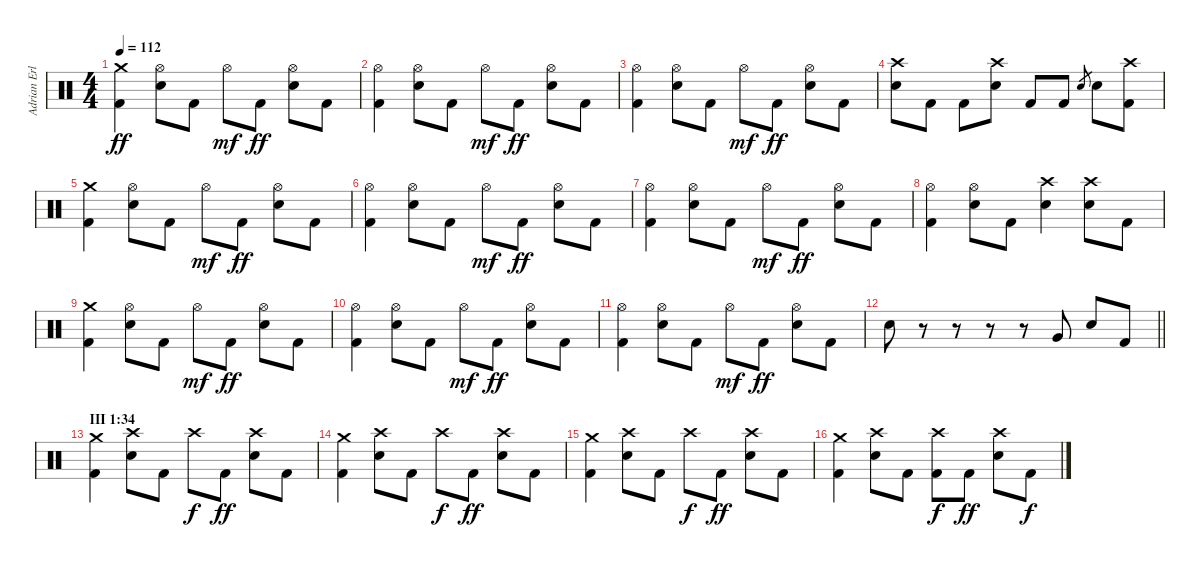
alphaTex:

\track ("Adrian Erlandsson (Drums)" "Adrian Erl") {instrument percussion}
\staff {score}
\articulation defaults
\ts (4 4)
\tempo 112
\clef neutral
\ks c
("Crash medium (hit)" "Kick (hit) 2").4{dy ff} ("Hi-Hat (open)" "Electric Snare (hit)").8 "Kick (hit) 2".8 "Hi-Hat (open)".8{dy mf} "Kick (hit) 2".8{dy ff} ("Hi-Hat (open)" "Electric Snare (hit)").8 "Kick (hit) 2".8 |
("Hi-Hat (open)" "Kick (hit) 2").4 ("Hi-Hat (open)" "Electric Snare (hit)").8 "Kick (hit) 2".8 "Hi-Hat (open)".8{dy mf} "Kick (hit) 2".8{dy ff} ("Hi-Hat (open)" "Electric Snare (hit)").8 "Kick (hit) 2".8 |
("Hi-Hat (open)" "Kick (hit) 2").4 ("Hi-Hat (open)" "Electric Snare (hit)").8 "Kick (hit) 2".8 "Hi-Hat (open)".8{dy mf} "Kick (hit) 2".8{dy ff} ("Hi-Hat (open)" "Electric Snare (hit)").8 "Kick (hit) 2".8 |
("Crash high (hit)" "Electric Snare (hit)").8 "Kick (hit) 2".8 "Kick (hit) 2".8 ("Crash high (hit)" "Electric Snare (hit)").8 "Kick (hit) 2".8 "Kick (hit) 2".8 "Electric Snare (hit)".8{gr} "Electric Snare (hit)".8 ("Crash high (hit)" "Kick (hit) 2").8 |
("Crash medium (hit)" "Kick (hit) 2").4 ("Hi-Hat (open)" "Electric Snare (hit)").8 "Kick (hit) 2".8 "Hi-Hat (open)".8{dy mf} "Kick (hit) 2".8{dy ff} ("Hi-Hat (open)" "Electric Snare (hit)").8 "Kick (hit) 2".8 |
("Hi-Hat (open)" "Kick (hit) 2").4 ("Hi-Hat (open)" "Electric Snare (hit)").8 "Kick (hit) 2".8 "Hi-Hat (open)".8{dy mf} "Kick (hit) 2".8{dy ff} ("Hi-Hat (open)" "Electric Snare (hit)").8 "Kick (hit) 2".8 |
("Hi-Hat (open)" "Kick (hit) 2").4 ("Hi-Hat (open)" "Electric Snare (hit)").8 "Kick (hit) 2".8 "Hi-Hat (open)".8{dy mf} "Kick (hit) 2".8{dy ff} ("Hi-Hat (open)" "Electric Snare (hit)").8 "Kick (hit) 2".8 |
("Hi-Hat (open)" "Kick (hit) 2").4 ("Hi-Hat (open)" "Electric Snare (hit)").8 "Kick (hit) 2".8 ("Crash high (hit)" "Electric Snare (hit)").4 ("Crash high (hit)" "Electric Snare (hit)").8 "Kick (hit) 2".8 |
("Crash medium (hit)" "Kick (hit) 2").4 ("Hi-Hat (open)" "Electric Snare (hit)").8 "Kick (hit) 2".8 "Hi-Hat (open)".8{dy mf} "Kick (hit) 2".8{dy ff} ("Hi-Hat (open)" "Electric Snare (hit)").8 "Kick (hit) 2".8 |
("Hi-Hat (open)" "Kick (hit) 2").4 ("Hi-Hat (open)" "Electric Snare (hit)").8 "Kick (hit) 2".8 "Hi-Hat (open)".8{dy mf} "Kick (hit) 2".8{dy ff} ("Hi-Hat (open)" "Electric Snare (hit)").8 "Kick (hit) 2".8 |
("Hi-Hat (open)" "Kick (hit) 2").4 ("Hi-Hat (open)" "Electric Snare (hit)").8 "Kick (hit) 2".8 "Hi-Hat (open)".8{dy mf} "Kick (hit) 2".8{dy ff} ("Hi-Hat (open)" "Electric Snare (hit)").8 "Kick (hit) 2".8 |
\barLineRight lightlight "Electric Snare (hit)".8
r.8 r.8 r.8 r.8 "Very Low Tom (hit)".8 "Electric Snare (hit)".8 "Kick (hit) 2".8 |
\section ("" "III 1:34")
("Crash medium (hit)" "Kick (hit) 2").4 ("Crash high (hit)" "Electric Snare (hit)").8 "Kick (hit) 2".8 "Crash high (hit)".8{dy f} "Kick (hit) 2".8{dy ff} ("Crash high (hit)" "Electric Snare (hit)").8 "Kick (hit) 2".8 |
("Crash medium (hit)" "Kick (hit) 2").4 ("Crash high (hit)" "Electric Snare (hit)").8 "Kick (hit) 2".8 "Crash high (hit)".8{dy f} "Kick (hit) 2".8{dy ff} ("Crash high (hit)" "Electric Snare (hit)").8 "Kick (hit) 2".8 |
("Crash medium (hit)" "Kick (hit) 2").4 ("Crash high (hit)" "Electric Snare (hit)").8 "Kick (hit) 2".8 "Crash high (hit)".8{dy f} "Kick (hit) 2".8{dy ff} ("Crash high (hit)" "Electric Snare (hit)").8 "Kick (hit) 2".8 |
("Crash medium (hit)" "Kick (hit) 2").4 ("Crash high (hit)" "Electric Snare (hit)").8 "Kick (hit) 2".8 ("Crash high (hit)" "Kick (hit) 2").8{dy f} "Kick (hit) 2".8{dy ff} ("Crash high (hit)" "Electric Snare (hit)").8 "Kick (hit) 2".8{dy f}
